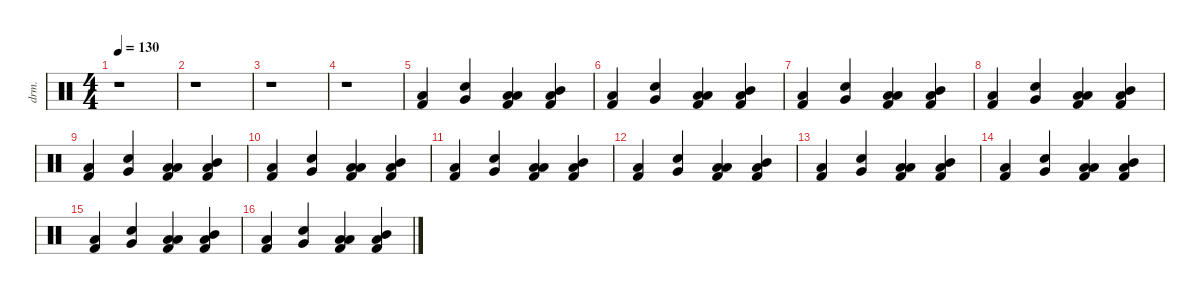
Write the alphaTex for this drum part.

\defaultSystemsLayout 4
\hideDynamics
\bracketExtendMode nobrackets
\otherSystemsTrackNameOrientation horizontal
\track ("Percussion" "drm.") {instrument percussion}
\staff {score}
\articulation defaults
\ts (4 4)
\beaming (8 2 2 2 2)
\tempo 130
\clef neutral
\ks c
r.1{dy f} |
r.1 |
r.1 |
r.1 |
("Kick (hit) 2" "Low Floor Tom (hit)").4 ("Very Low Tom (hit)" "Snare (hit) 2").4 ("Low Floor Tom (hit)" "Kick (hit) 2" "Low Tom (hit)").4 ("Low Tom (hit)" "Kick (hit) 2" "Mid Tom (hit)").4 |
("Kick (hit) 2" "Low Floor Tom (hit)").4 ("Very Low Tom (hit)" "Snare (hit) 2").4 ("Low Floor Tom (hit)" "Kick (hit) 2" "Low Tom (hit)").4 ("Low Tom (hit)" "Kick (hit) 2" "Mid Tom (hit)").4 |
("Kick (hit) 2" "Low Floor Tom (hit)").4 ("Very Low Tom (hit)" "Snare (hit) 2").4 ("Low Floor Tom (hit)" "Kick (hit) 2" "Low Tom (hit)").4 ("Low Tom (hit)" "Kick (hit) 2" "Mid Tom (hit)").4 |
("Kick (hit) 2" "Low Floor Tom (hit)").4 ("Very Low Tom (hit)" "Snare (hit) 2").4 ("Low Floor Tom (hit)" "Kick (hit) 2" "Low Tom (hit)").4 ("Low Tom (hit)" "Kick (hit) 2" "Mid Tom (hit)").4 |
("Kick (hit) 2" "Low Floor Tom (hit)").4 ("Very Low Tom (hit)" "Snare (hit) 2").4 ("Low Floor Tom (hit)" "Kick (hit) 2" "Low Tom (hit)").4 ("Low Tom (hit)" "Kick (hit) 2" "Mid Tom (hit)").4 |
("Kick (hit) 2" "Low Floor Tom (hit)").4 ("Very Low Tom (hit)" "Snare (hit) 2").4 ("Low Floor Tom (hit)" "Kick (hit) 2" "Low Tom (hit)").4 ("Low Tom (hit)" "Kick (hit) 2" "Mid Tom (hit)").4 |
("Kick (hit) 2" "Low Floor Tom (hit)").4 ("Very Low Tom (hit)" "Snare (hit) 2").4 ("Low Floor Tom (hit)" "Kick (hit) 2" "Low Tom (hit)").4 ("Low Tom (hit)" "Kick (hit) 2" "Mid Tom (hit)").4 |
("Kick (hit) 2" "Low Floor Tom (hit)").4 ("Very Low Tom (hit)" "Snare (hit) 2").4 ("Low Floor Tom (hit)" "Kick (hit) 2" "Low Tom (hit)").4 ("Low Tom (hit)" "Kick (hit) 2" "Mid Tom (hit)").4 |
("Kick (hit) 2" "Low Floor Tom (hit)").4 ("Very Low Tom (hit)" "Snare (hit) 2").4 ("Low Floor Tom (hit)" "Kick (hit) 2" "Low Tom (hit)").4 ("Low Tom (hit)" "Kick (hit) 2" "Mid Tom (hit)").4 |
("Kick (hit) 2" "Low Floor Tom (hit)").4 ("Very Low Tom (hit)" "Snare (hit) 2").4 ("Low Floor Tom (hit)" "Kick (hit) 2" "Low Tom (hit)").4 ("Low Tom (hit)" "Kick (hit) 2" "Mid Tom (hit)").4 |
("Kick (hit) 2" "Low Floor Tom (hit)").4 ("Very Low Tom (hit)" "Snare (hit) 2").4 ("Low Floor Tom (hit)" "Kick (hit) 2" "Low Tom (hit)").4 ("Low Tom (hit)" "Kick (hit) 2" "Mid Tom (hit)").4 |
("Kick (hit) 2" "Low Floor Tom (hit)").4 ("Very Low Tom (hit)" "Snare (hit) 2").4 ("Low Floor Tom (hit)" "Kick (hit) 2" "Low Tom (hit)").4 ("Low Tom (hit)" "Kick (hit) 2" "Mid Tom (hit)").4
